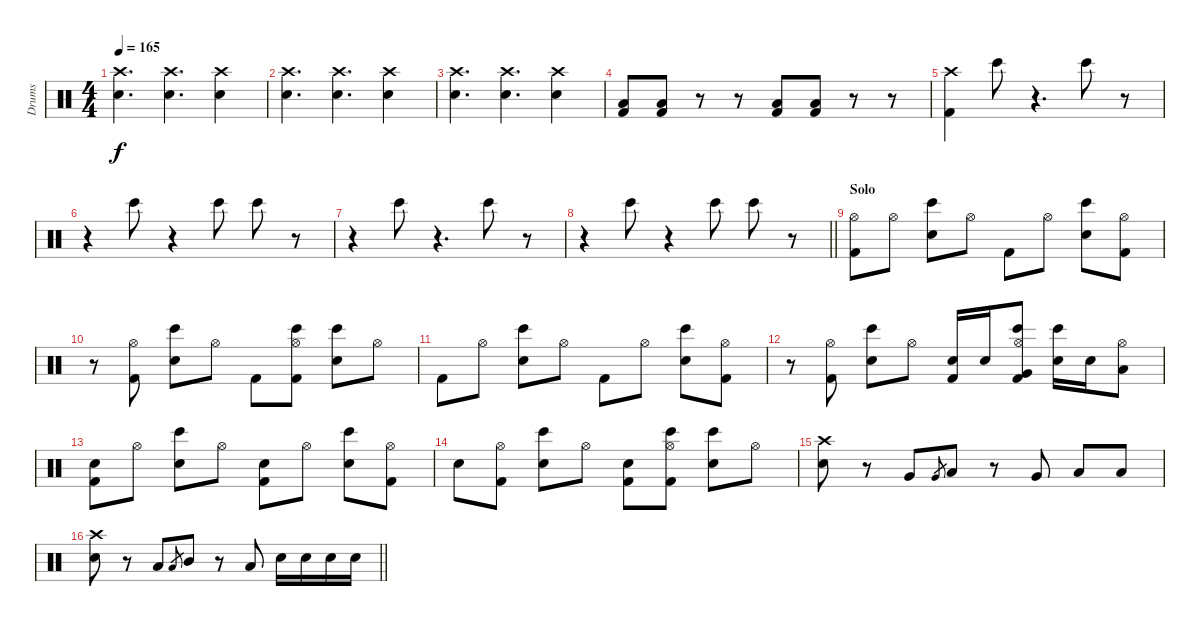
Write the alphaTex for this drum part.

\track ("Drums" "Drums") {instrument percussion}
\staff {score}
\articulation defaults
\ts (4 4)
\tempo 165
\clef neutral
\ks c
("Crash high (hit)" "Electric Snare (hit)").4{d dy f} ("Crash high (hit)" "Electric Snare (hit)").4{d} ("Crash high (hit)" "Electric Snare (hit)").4 |
("Crash high (hit)" "Electric Snare (hit)").4{d} ("Crash high (hit)" "Electric Snare (hit)").4{d} ("Crash high (hit)" "Electric Snare (hit)").4 |
("Crash high (hit)" "Electric Snare (hit)").4{d} ("Crash high (hit)" "Electric Snare (hit)").4{d} ("Crash high (hit)" "Electric Snare (hit)").4 |
("Kick (hit) 2" "Low Floor Tom (hit)").8 ("Kick (hit) 2" "Low Floor Tom (hit)").8 r.8 r.8 ("Kick (hit) 2" "Low Floor Tom (hit)").8 ("Kick (hit) 2" "Low Floor Tom (hit)").8 r.8 r.8 |
("Crash high (hit)" "Kick (hit) 2").4 "Bongo High (hit)".8 r.4{d} "Bongo High (hit)".8 r.8 |
r.4 "Bongo High (hit)".8 r.4 "Bongo High (hit)".8 "Bongo High (hit)".8 r.8 |
r.4 "Bongo High (hit)".8 r.4{d} "Bongo High (hit)".8 r.8 |
\barLineRight lightlight
r.4 "Bongo High (hit)".8 r.4 "Bongo High (hit)".8 "Bongo High (hit)".8 r.8 |
\section ("" "Solo")
("Hi-Hat (open)" "Kick (hit) 2").8 "Hi-Hat (open)".8 ("Electric Snare (hit)" "Bongo High (hit)").8 "Hi-Hat (open)".8 "Kick (hit) 2".8 "Hi-Hat (open)".8 ("Electric Snare (hit)" "Bongo High (hit)").8 ("Hi-Hat (open)" "Kick (hit) 2").8 |
r.8 ("Hi-Hat (open)" "Kick (hit) 2").8 ("Electric Snare (hit)" "Bongo High (hit)").8 "Hi-Hat (open)".8 "Kick (hit) 2".8 ("Hi-Hat (open)" "Kick (hit) 2" "Bongo High (hit)").8 ("Electric Snare (hit)" "Bongo High (hit)").8 "Hi-Hat (open)".8 |
"Kick (hit) 2".8 "Hi-Hat (open)".8 ("Electric Snare (hit)" "Bongo High (hit)").8 "Hi-Hat (open)".8 "Kick (hit) 2".8 "Hi-Hat (open)".8 ("Electric Snare (hit)" "Bongo High (hit)").8 ("Hi-Hat (open)" "Kick (hit) 2").8 |
r.8 ("Hi-Hat (open)" "Kick (hit) 2").8 ("Electric Snare (hit)" "Bongo High (hit)").8 "Hi-Hat (open)".8 ("Kick (hit) 2" "Electric Snare (hit)").16 "Electric Snare (hit)".16 ("Hi-Hat (open)" "Kick (hit) 2" "Very Low Tom (hit)" "Bongo High (hit)").8 ("Electric Snare (hit)" "Bongo High (hit)").16 "Electric Snare (hit)".16 ("Hi-Hat (open)" "Low Floor Tom (hit)").8 |
("Kick (hit) 2" "Electric Snare (hit)").8 "Hi-Hat (open)".8 ("Electric Snare (hit)" "Bongo High (hit)").8 "Hi-Hat (open)".8 ("Kick (hit) 2" "Electric Snare (hit)").8 "Hi-Hat (open)".8 ("Electric Snare (hit)" "Bongo High (hit)").8 ("Hi-Hat (open)" "Kick (hit) 2").8 |
"Electric Snare (hit)".8 ("Hi-Hat (open)" "Kick (hit) 2").8 ("Electric Snare (hit)" "Bongo High (hit)").8 "Hi-Hat (open)".8 ("Kick (hit) 2" "Electric Snare (hit)").8 ("Hi-Hat (open)" "Kick (hit) 2" "Bongo High (hit)").8 ("Electric Snare (hit)" "Bongo High (hit)").8 "Hi-Hat (open)".8 |
("Crash high (hit)" "Electric Snare (hit)").8 r.8 "Very Low Tom (hit)".8 "Very Low Tom (hit)".8{gr} "Low Tom (hit)".8 r.8 "Very Low Tom (hit)".8 "Low Floor Tom (hit)".8 "Low Floor Tom (hit)".8 |
\barLineRight lightlight
("Crash high (hit)" "Electric Snare (hit)").8 r.8 "Low Tom (hit)".8 "Low Tom (hit)".8{gr} "Mid Tom (hit)".8 r.8 "Low Tom (hit)".8 "Electric Snare (hit)".16 "Electric Snare (hit)".16 "Electric Snare (hit)".16 "Electric Snare (hit)".16
